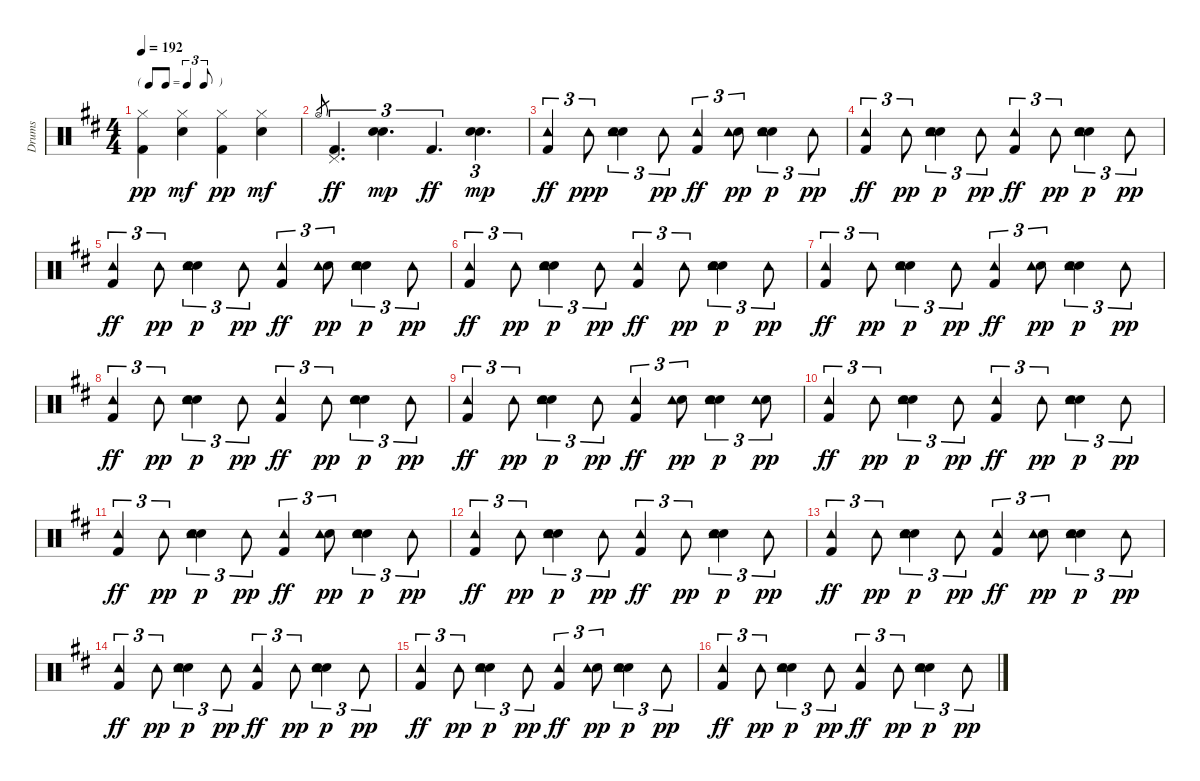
\track ("Drums" "Drums") {instrument percussion}
\staff {score}
\articulation defaults
\ts (4 4)
\tf triplet8th
\tempo 192
\clef neutral
\ks bminor
("Hi-Hat (closed)" "Kick (hit) 2").4{dy pp} ("Hi-Hat (closed)" "Snare (hit) 2").4{dy mf} ("Hi-Hat (closed)" "Kick (hit) 2").4{dy pp} ("Hi-Hat (closed)" "Snare (hit) 2").4{dy mf} |
"Hi-Hat (open)".8{gr} ("Pedal Hi-Hat (hit)" "Kick (hit) 2").4{d tu (3 2) dy ff} ("Hand Clap (hit)" "Snare (hit) 2").4{d tu (3 2) dy mp} "Kick (hit) 2".4{d tu (3 2) dy ff} ("Hand Clap (hit)" "Snare (hit) 2").4{d tu (3 2) dy mp} |
("Tambourine (hit)" "Kick (hit) 2").4{tu (3 2) dy ff} "Tambourine (hit)".8{tu (3 2) dy ppp} ("Hand Clap (hit)" "Snare (hit) 2" "Tambourine (hit)").4{tu (3 2)} "Tambourine (hit)".8{tu (3 2) dy pp} ("Tambourine (hit)" "Kick (hit) 2").4{tu (3 2) dy ff} ("Snare (hit) 2" "Tambourine (hit)").8{tu (3 2) dy pp} ("Hand Clap (hit)" "Snare (hit) 2" "Tambourine (hit)").4{tu (3 2) dy p} "Tambourine (hit)".8{tu (3 2) dy pp} |
("Tambourine (hit)" "Kick (hit) 2").4{tu (3 2) dy ff} "Tambourine (hit)".8{tu (3 2) dy pp} ("Hand Clap (hit)" "Snare (hit) 2" "Tambourine (hit)").4{tu (3 2) dy p} "Tambourine (hit)".8{tu (3 2) dy pp} ("Tambourine (hit)" "Kick (hit) 2").4{tu (3 2) dy ff} "Tambourine (hit)".8{tu (3 2) dy pp} ("Hand Clap (hit)" "Snare (hit) 2" "Tambourine (hit)").4{tu (3 2) dy p} "Tambourine (hit)".8{tu (3 2) dy pp} |
("Tambourine (hit)" "Kick (hit) 2").4{tu (3 2) dy ff} "Tambourine (hit)".8{tu (3 2) dy pp} ("Hand Clap (hit)" "Snare (hit) 2" "Tambourine (hit)").4{tu (3 2) dy p} "Tambourine (hit)".8{tu (3 2) dy pp} ("Tambourine (hit)" "Kick (hit) 2").4{tu (3 2) dy ff} ("Snare (hit) 2" "Tambourine (hit)").8{tu (3 2) dy pp} ("Hand Clap (hit)" "Snare (hit) 2" "Tambourine (hit)").4{tu (3 2) dy p} "Tambourine (hit)".8{tu (3 2) dy pp} |
("Tambourine (hit)" "Kick (hit) 2").4{tu (3 2) dy ff} "Tambourine (hit)".8{tu (3 2) dy pp} ("Hand Clap (hit)" "Snare (hit) 2" "Tambourine (hit)").4{tu (3 2) dy p} "Tambourine (hit)".8{tu (3 2) dy pp} ("Tambourine (hit)" "Kick (hit) 2").4{tu (3 2) dy ff} "Tambourine (hit)".8{tu (3 2) dy pp} ("Hand Clap (hit)" "Snare (hit) 2" "Tambourine (hit)").4{tu (3 2) dy p} "Tambourine (hit)".8{tu (3 2) dy pp} |
("Tambourine (hit)" "Kick (hit) 2").4{tu (3 2) dy ff} "Tambourine (hit)".8{tu (3 2) dy pp} ("Hand Clap (hit)" "Snare (hit) 2" "Tambourine (hit)").4{tu (3 2) dy p} "Tambourine (hit)".8{tu (3 2) dy pp} ("Tambourine (hit)" "Kick (hit) 2").4{tu (3 2) dy ff} ("Snare (hit) 2" "Tambourine (hit)").8{tu (3 2) dy pp} ("Hand Clap (hit)" "Snare (hit) 2" "Tambourine (hit)").4{tu (3 2) dy p} "Tambourine (hit)".8{tu (3 2) dy pp} |
("Tambourine (hit)" "Kick (hit) 2").4{tu (3 2) dy ff} "Tambourine (hit)".8{tu (3 2) dy pp} ("Hand Clap (hit)" "Snare (hit) 2" "Tambourine (hit)").4{tu (3 2) dy p} "Tambourine (hit)".8{tu (3 2) dy pp} ("Tambourine (hit)" "Kick (hit) 2").4{tu (3 2) dy ff} "Tambourine (hit)".8{tu (3 2) dy pp} ("Hand Clap (hit)" "Snare (hit) 2" "Tambourine (hit)").4{tu (3 2) dy p} "Tambourine (hit)".8{tu (3 2) dy pp} |
("Tambourine (hit)" "Kick (hit) 2").4{tu (3 2) dy ff} "Tambourine (hit)".8{tu (3 2) dy pp} ("Hand Clap (hit)" "Snare (hit) 2" "Tambourine (hit)").4{tu (3 2) dy p} "Tambourine (hit)".8{tu (3 2) dy pp} ("Tambourine (hit)" "Kick (hit) 2").4{tu (3 2) dy ff} ("Snare (hit) 2" "Tambourine (hit)").8{tu (3 2) dy pp} ("Hand Clap (hit)" "Snare (hit) 2" "Tambourine (hit)").4{tu (3 2) dy p} ("Snare (hit) 2" "Tambourine (hit)").8{tu (3 2) dy pp} |
("Tambourine (hit)" "Kick (hit) 2").4{tu (3 2) dy ff} "Tambourine (hit)".8{tu (3 2) dy pp} ("Hand Clap (hit)" "Snare (hit) 2" "Tambourine (hit)").4{tu (3 2) dy p} "Tambourine (hit)".8{tu (3 2) dy pp} ("Tambourine (hit)" "Kick (hit) 2").4{tu (3 2) dy ff} "Tambourine (hit)".8{tu (3 2) dy pp} ("Hand Clap (hit)" "Snare (hit) 2" "Tambourine (hit)").4{tu (3 2) dy p} "Tambourine (hit)".8{tu (3 2) dy pp} |
("Tambourine (hit)" "Kick (hit) 2").4{tu (3 2) dy ff} "Tambourine (hit)".8{tu (3 2) dy pp} ("Hand Clap (hit)" "Snare (hit) 2" "Tambourine (hit)").4{tu (3 2) dy p} "Tambourine (hit)".8{tu (3 2) dy pp} ("Tambourine (hit)" "Kick (hit) 2").4{tu (3 2) dy ff} ("Snare (hit) 2" "Tambourine (hit)").8{tu (3 2) dy pp} ("Hand Clap (hit)" "Snare (hit) 2" "Tambourine (hit)").4{tu (3 2) dy p} "Tambourine (hit)".8{tu (3 2) dy pp} |
("Tambourine (hit)" "Kick (hit) 2").4{tu (3 2) dy ff} "Tambourine (hit)".8{tu (3 2) dy pp} ("Hand Clap (hit)" "Snare (hit) 2" "Tambourine (hit)").4{tu (3 2) dy p} "Tambourine (hit)".8{tu (3 2) dy pp} ("Tambourine (hit)" "Kick (hit) 2").4{tu (3 2) dy ff} "Tambourine (hit)".8{tu (3 2) dy pp} ("Hand Clap (hit)" "Snare (hit) 2" "Tambourine (hit)").4{tu (3 2) dy p} "Tambourine (hit)".8{tu (3 2) dy pp} |
("Tambourine (hit)" "Kick (hit) 2").4{tu (3 2) dy ff} "Tambourine (hit)".8{tu (3 2) dy pp} ("Hand Clap (hit)" "Snare (hit) 2" "Tambourine (hit)").4{tu (3 2) dy p} "Tambourine (hit)".8{tu (3 2) dy pp} ("Tambourine (hit)" "Kick (hit) 2").4{tu (3 2) dy ff} ("Snare (hit) 2" "Tambourine (hit)").8{tu (3 2) dy pp} ("Hand Clap (hit)" "Snare (hit) 2" "Tambourine (hit)").4{tu (3 2) dy p} "Tambourine (hit)".8{tu (3 2) dy pp} |
("Tambourine (hit)" "Kick (hit) 2").4{tu (3 2) dy ff} "Tambourine (hit)".8{tu (3 2) dy pp} ("Hand Clap (hit)" "Snare (hit) 2" "Tambourine (hit)").4{tu (3 2) dy p} "Tambourine (hit)".8{tu (3 2) dy pp} ("Tambourine (hit)" "Kick (hit) 2").4{tu (3 2) dy ff} "Tambourine (hit)".8{tu (3 2) dy pp} ("Hand Clap (hit)" "Snare (hit) 2" "Tambourine (hit)").4{tu (3 2) dy p} "Tambourine (hit)".8{tu (3 2) dy pp} |
("Tambourine (hit)" "Kick (hit) 2").4{tu (3 2) dy ff} "Tambourine (hit)".8{tu (3 2) dy pp} ("Hand Clap (hit)" "Snare (hit) 2" "Tambourine (hit)").4{tu (3 2) dy p} "Tambourine (hit)".8{tu (3 2) dy pp} ("Tambourine (hit)" "Kick (hit) 2").4{tu (3 2) dy ff} ("Snare (hit) 2" "Tambourine (hit)").8{tu (3 2) dy pp} ("Hand Clap (hit)" "Snare (hit) 2" "Tambourine (hit)").4{tu (3 2) dy p} "Tambourine (hit)".8{tu (3 2) dy pp} |
("Tambourine (hit)" "Kick (hit) 2").4{tu (3 2) dy ff} "Tambourine (hit)".8{tu (3 2) dy pp} ("Hand Clap (hit)" "Snare (hit) 2" "Tambourine (hit)").4{tu (3 2) dy p} "Tambourine (hit)".8{tu (3 2) dy pp} ("Tambourine (hit)" "Kick (hit) 2").4{tu (3 2) dy ff} "Tambourine (hit)".8{tu (3 2) dy pp} ("Hand Clap (hit)" "Snare (hit) 2" "Tambourine (hit)").4{tu (3 2) dy p} "Tambourine (hit)".8{tu (3 2) dy pp}
